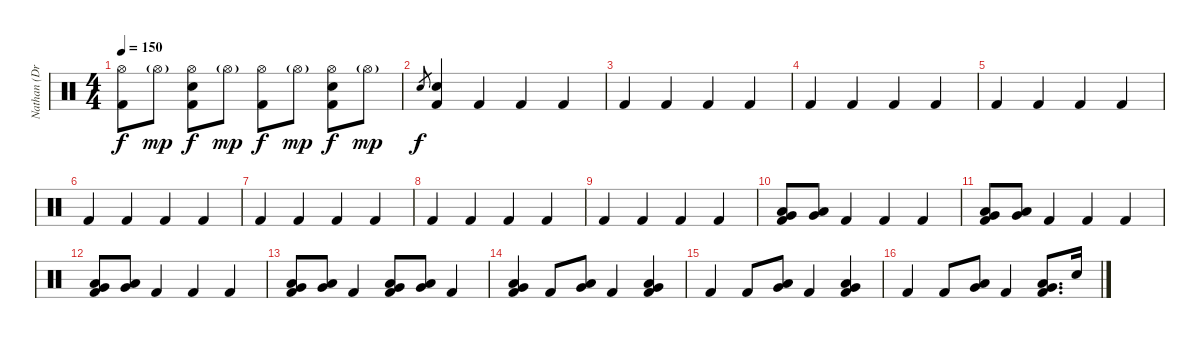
\track ("Nathan (Drums)" "Nathan (Dr") {instrument percussion}
\staff {score}
\articulation defaults
\ts (4 4)
\tempo 150
\clef neutral
\ks c
("Hi-Hat (open)" "Kick (hit) 2").8{dy f} "Hi-Hat (open)"{g}.8{dy mp} ("Hi-Hat (open)" "Electric Snare (hit)" "Kick (hit) 2").8{dy f} "Hi-Hat (open)"{g}.8{dy mp} ("Hi-Hat (open)" "Kick (hit) 2").8{dy f} "Hi-Hat (open)"{g}.8{dy mp} ("Hi-Hat (open)" "Electric Snare (hit)" "Kick (hit) 2").8{dy f} "Hi-Hat (open)"{g}.8{dy mp} |
"Electric Snare (hit)".8{gr dy f} ("Electric Snare (hit)" "Kick (hit) 2").4 "Kick (hit) 2".4 "Kick (hit) 2".4 "Kick (hit) 2".4 |
"Kick (hit) 2".4 "Kick (hit) 2".4 "Kick (hit) 2".4 "Kick (hit) 2".4 |
"Kick (hit) 2".4 "Kick (hit) 2".4 "Kick (hit) 2".4 "Kick (hit) 2".4 |
"Kick (hit) 2".4 "Kick (hit) 2".4 "Kick (hit) 2".4 "Kick (hit) 2".4 |
"Kick (hit) 2".4 "Kick (hit) 2".4 "Kick (hit) 2".4 "Kick (hit) 2".4 |
"Kick (hit) 2".4 "Kick (hit) 2".4 "Kick (hit) 2".4 "Kick (hit) 2".4 |
"Kick (hit) 2".4 "Kick (hit) 2".4 "Kick (hit) 2".4 "Kick (hit) 2".4 |
"Kick (hit) 2".4 "Kick (hit) 2".4 "Kick (hit) 2".4 "Kick (hit) 2".4 |
("Low Tom (hit)" "Very Low Tom (hit)" "Kick (hit) 2").8 ("Low Tom (hit)" "Very Low Tom (hit)").8 "Kick (hit) 2".4 "Kick (hit) 2".4 "Kick (hit) 2".4 |
("Low Tom (hit)" "Very Low Tom (hit)" "Kick (hit) 2").8 ("Low Tom (hit)" "Very Low Tom (hit)").8 "Kick (hit) 2".4 "Kick (hit) 2".4 "Kick (hit) 2".4 |
("Low Tom (hit)" "Very Low Tom (hit)" "Kick (hit) 2").8 ("Low Tom (hit)" "Very Low Tom (hit)").8 "Kick (hit) 2".4 "Kick (hit) 2".4 "Kick (hit) 2".4 |
("Low Tom (hit)" "Very Low Tom (hit)" "Kick (hit) 2").8 ("Low Tom (hit)" "Very Low Tom (hit)").8 "Kick (hit) 2".4 ("Low Tom (hit)" "Very Low Tom (hit)" "Kick (hit) 2").8 ("Low Tom (hit)" "Very Low Tom (hit)").8 "Kick (hit) 2".4 |
("Low Tom (hit)" "Very Low Tom (hit)" "Kick (hit) 2").4 "Kick (hit) 2".8 ("Low Tom (hit)" "Very Low Tom (hit)").8 "Kick (hit) 2".4 ("Low Tom (hit)" "Very Low Tom (hit)" "Kick (hit) 2").4 |
"Kick (hit) 2".4 "Kick (hit) 2".8 ("Low Tom (hit)" "Very Low Tom (hit)").8 "Kick (hit) 2".4 ("Low Tom (hit)" "Very Low Tom (hit)" "Kick (hit) 2").4 |
"Kick (hit) 2".4 "Kick (hit) 2".8 ("Low Tom (hit)" "Very Low Tom (hit)").8 "Kick (hit) 2".4 ("Low Tom (hit)" "Very Low Tom (hit)" "Kick (hit) 2").8{d} "Electric Snare (hit)".16
